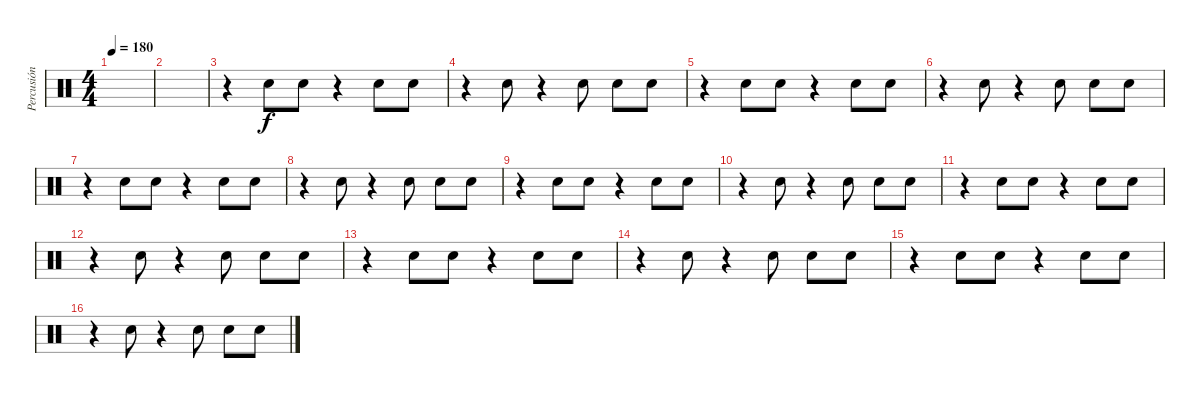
\track ("Percusión" "Percusión") {instrument percussion}
\staff {score}
\articulation defaults
\ts (4 4)
\tempo 180
\clef neutral
\ks c
|
|
r.4 "Hand Clap (hit)".8 "Hand Clap (hit)".8 r.4 "Hand Clap (hit)".8 "Hand Clap (hit)".8 |
r.4 "Hand Clap (hit)".8 r.4 "Hand Clap (hit)".8 "Hand Clap (hit)".8 "Hand Clap (hit)".8 |
r.4 "Hand Clap (hit)".8 "Hand Clap (hit)".8 r.4 "Hand Clap (hit)".8 "Hand Clap (hit)".8 |
r.4 "Hand Clap (hit)".8 r.4 "Hand Clap (hit)".8 "Hand Clap (hit)".8 "Hand Clap (hit)".8 |
r.4 "Hand Clap (hit)".8 "Hand Clap (hit)".8 r.4 "Hand Clap (hit)".8 "Hand Clap (hit)".8 |
r.4 "Hand Clap (hit)".8 r.4 "Hand Clap (hit)".8 "Hand Clap (hit)".8 "Hand Clap (hit)".8 |
r.4 "Hand Clap (hit)".8 "Hand Clap (hit)".8 r.4 "Hand Clap (hit)".8 "Hand Clap (hit)".8 |
r.4 "Hand Clap (hit)".8 r.4 "Hand Clap (hit)".8 "Hand Clap (hit)".8 "Hand Clap (hit)".8 |
r.4 "Hand Clap (hit)".8 "Hand Clap (hit)".8 r.4 "Hand Clap (hit)".8 "Hand Clap (hit)".8 |
r.4 "Hand Clap (hit)".8 r.4 "Hand Clap (hit)".8 "Hand Clap (hit)".8 "Hand Clap (hit)".8 |
r.4 "Hand Clap (hit)".8 "Hand Clap (hit)".8 r.4 "Hand Clap (hit)".8 "Hand Clap (hit)".8 |
r.4 "Hand Clap (hit)".8 r.4 "Hand Clap (hit)".8 "Hand Clap (hit)".8 "Hand Clap (hit)".8 |
r.4 "Hand Clap (hit)".8 "Hand Clap (hit)".8 r.4 "Hand Clap (hit)".8 "Hand Clap (hit)".8 |
r.4 "Hand Clap (hit)".8 r.4 "Hand Clap (hit)".8 "Hand Clap (hit)".8 "Hand Clap (hit)".8
